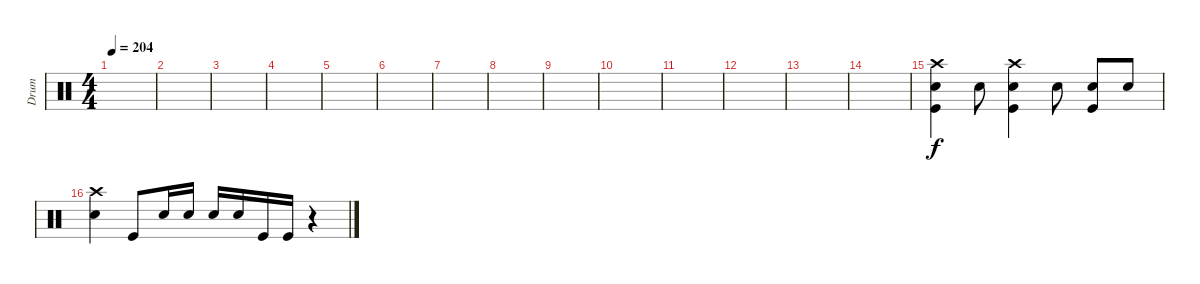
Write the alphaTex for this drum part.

\track ("Drum" "Drum") {instrument percussion}
\staff {score}
\articulation defaults
\ts (4 4)
\tempo 204
\clef neutral
\ks c
|
|
|
|
|
|
|
|
|
|
|
|
|
|
("Crash high (hit)" "Snare (hit) 2" "Kick (hit)").4 "Snare (hit) 2".8 ("Crash high (hit)" "Snare (hit) 2" "Kick (hit)").4 "Snare (hit) 2".8 ("Snare (hit) 2" "Kick (hit)").8 "Snare (hit) 2".8 |
("Crash high (hit)" "Snare (hit) 2").4 "Kick (hit)".8 "Snare (hit) 2".16 "Snare (hit) 2".16 "Snare (hit) 2".16 "Snare (hit) 2".16 "Kick (hit)".16 "Kick (hit)".16 r.4
